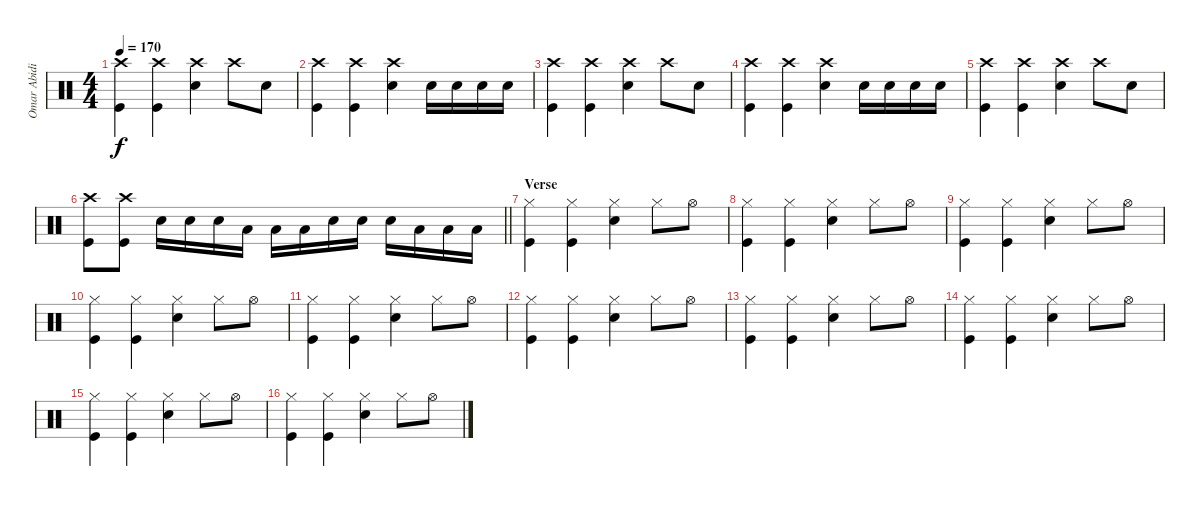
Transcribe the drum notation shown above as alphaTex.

\track ("Omar Abidi" "Omar Abidi") {instrument percussion}
\staff {score}
\articulation defaults
\ts (4 4)
\tempo 170
\clef neutral
\ks c
("Crash high (hit)" "Kick (hit)").4{dy f} ("Crash high (hit)" "Kick (hit)").4 ("Crash high (hit)" "Snare (hit) 2").4 "Crash high (hit)".8 "Snare (hit) 2".8 |
("Crash high (hit)" "Kick (hit)").4 ("Crash high (hit)" "Kick (hit)").4 ("Crash high (hit)" "Snare (hit) 2").4 "Snare (hit) 2".16 "Snare (hit) 2".16 "Snare (hit) 2".16 "Snare (hit) 2".16 |
("Crash high (hit)" "Kick (hit)").4 ("Crash high (hit)" "Kick (hit)").4 ("Crash high (hit)" "Snare (hit) 2").4 "Crash high (hit)".8 "Snare (hit) 2".8 |
("Crash high (hit)" "Kick (hit)").4 ("Crash high (hit)" "Kick (hit)").4 ("Crash high (hit)" "Snare (hit) 2").4 "Snare (hit) 2".16 "Snare (hit) 2".16 "Snare (hit) 2".16 "Snare (hit) 2".16 |
("Crash high (hit)" "Kick (hit)").4 ("Crash high (hit)" "Kick (hit)").4 ("Crash high (hit)" "Snare (hit) 2").4 "Crash high (hit)".8 "Snare (hit) 2".8 |
\barLineRight lightlight
("Crash high (hit)" "Kick (hit)").8 ("Crash high (hit)" "Kick (hit)").8 "Snare (hit) 2".16 "Snare (hit) 2".16 "Snare (hit) 2".16 "Low Tom (hit)".16 "Low Tom (hit)".16 "Low Tom (hit)".16 "Snare (hit) 2".16 "Snare (hit) 2".16 "Snare (hit) 2".16 "Low Tom (hit)".16 "Low Tom (hit)".16 "Low Tom (hit)".16 |
\section ("" "Verse")
("Hi-Hat (closed)" "Kick (hit)").4 ("Hi-Hat (closed)" "Kick (hit)").4 ("Hi-Hat (closed)" "Snare (hit) 2").4 "Hi-Hat (closed)".8 "Hi-Hat (open)".8 |
("Hi-Hat (closed)" "Kick (hit)").4 ("Hi-Hat (closed)" "Kick (hit)").4 ("Hi-Hat (closed)" "Snare (hit) 2").4 "Hi-Hat (closed)".8 "Hi-Hat (open)".8 |
("Hi-Hat (closed)" "Kick (hit)").4 ("Hi-Hat (closed)" "Kick (hit)").4 ("Hi-Hat (closed)" "Snare (hit) 2").4 "Hi-Hat (closed)".8 "Hi-Hat (open)".8 |
("Hi-Hat (closed)" "Kick (hit)").4 ("Hi-Hat (closed)" "Kick (hit)").4 ("Hi-Hat (closed)" "Snare (hit) 2").4 "Hi-Hat (closed)".8 "Hi-Hat (open)".8 |
("Hi-Hat (closed)" "Kick (hit)").4 ("Hi-Hat (closed)" "Kick (hit)").4 ("Hi-Hat (closed)" "Snare (hit) 2").4 "Hi-Hat (closed)".8 "Hi-Hat (open)".8 |
("Hi-Hat (closed)" "Kick (hit)").4 ("Hi-Hat (closed)" "Kick (hit)").4 ("Hi-Hat (closed)" "Snare (hit) 2").4 "Hi-Hat (closed)".8 "Hi-Hat (open)".8 |
("Hi-Hat (closed)" "Kick (hit)").4 ("Hi-Hat (closed)" "Kick (hit)").4 ("Hi-Hat (closed)" "Snare (hit) 2").4 "Hi-Hat (closed)".8 "Hi-Hat (open)".8 |
("Hi-Hat (closed)" "Kick (hit)").4 ("Hi-Hat (closed)" "Kick (hit)").4 ("Hi-Hat (closed)" "Snare (hit) 2").4 "Hi-Hat (closed)".8 "Hi-Hat (open)".8 |
("Hi-Hat (closed)" "Kick (hit)").4 ("Hi-Hat (closed)" "Kick (hit)").4 ("Hi-Hat (closed)" "Snare (hit) 2").4 "Hi-Hat (closed)".8 "Hi-Hat (open)".8 |
("Hi-Hat (closed)" "Kick (hit)").4 ("Hi-Hat (closed)" "Kick (hit)").4 ("Hi-Hat (closed)" "Snare (hit) 2").4 "Hi-Hat (closed)".8 "Hi-Hat (open)".8
